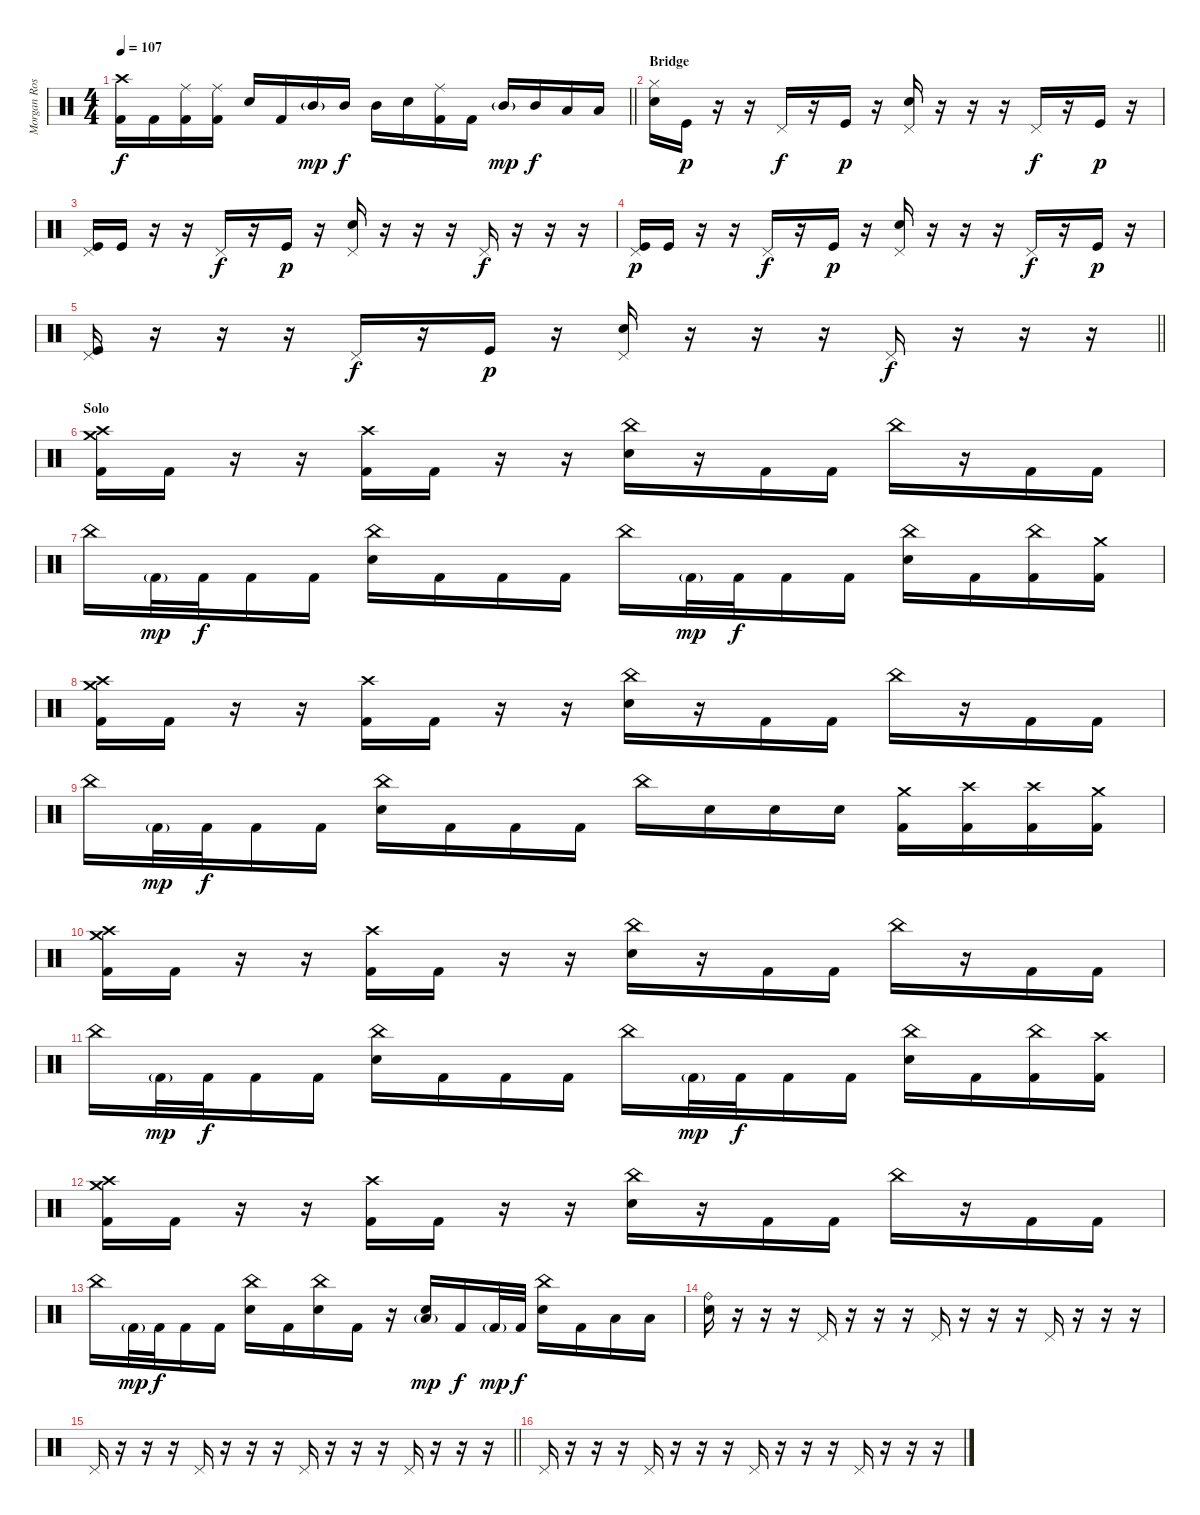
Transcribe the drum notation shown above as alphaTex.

\track ("Morgan Rose" "Morgan Ros") {instrument percussion}
\staff {score}
\articulation defaults
\ts (4 4)
\tempo 107
\clef neutral
\barLineRight lightlight
\ks c
("Crash high (hit)" "Kick (hit) 2").16{dy f} "Kick (hit) 2".16 ("Ride (middle)" "Kick (hit) 2").16 ("Ride (middle)" "Kick (hit) 2").16 "Snare (hit) 2".16 "Kick (hit) 2".16 "Mid Tom (hit)"{g}.16{dy mp} "Mid Tom (hit)".16{dy f} "Mid Tom (hit)".16 "Snare (hit) 2".16 ("Ride (middle)" "Kick (hit) 2").16 "Kick (hit) 2".16 "Mid Tom (hit)"{g}.16{dy mp} "Mid Tom (hit)".16{dy f} "Low Tom (hit)".16 "Low Tom (hit)".16 |
\section ("" "Bridge")
("Hi-Hat (closed)" "Snare (hit) 2").16 "Kick (hit)".16{dy p} r.16 r.16 "Pedal Hi-Hat (hit)".16{dy f} r.16 "Kick (hit)".16{dy p} r.16 ("Pedal Hi-Hat (hit)" "Electric Snare (hit)").16 r.16 r.16 r.16 "Pedal Hi-Hat (hit)".16{dy f} r.16 "Kick (hit)".16{dy p} r.16 |
("Pedal Hi-Hat (hit)" "Kick (hit)").16 "Kick (hit)".16 r.16 r.16 "Pedal Hi-Hat (hit)".16{dy f} r.16 "Kick (hit)".16{dy p} r.16 ("Pedal Hi-Hat (hit)" "Electric Snare (hit)").16 r.16 r.16 r.16 "Pedal Hi-Hat (hit)".16{dy f} r.16 r.16 r.16 |
("Pedal Hi-Hat (hit)" "Kick (hit)").16{dy p} "Kick (hit)".16 r.16 r.16 "Pedal Hi-Hat (hit)".16{dy f} r.16 "Kick (hit)".16{dy p} r.16 ("Pedal Hi-Hat (hit)" "Electric Snare (hit)").16 r.16 r.16 r.16 "Pedal Hi-Hat (hit)".16{dy f} r.16 "Kick (hit)".16{dy p} r.16 |
\barLineRight lightlight
("Pedal Hi-Hat (hit)" "Kick (hit)").16 r.16 r.16 r.16 "Pedal Hi-Hat (hit)".16{dy f} r.16 "Kick (hit)".16{dy p} r.16 ("Pedal Hi-Hat (hit)" "Electric Snare (hit)").16 r.16 r.16 r.16 "Pedal Hi-Hat (hit)".16{dy f} r.16 r.16 r.16 |
\section ("" "Solo")
("Crash medium (hit)" "Crash high (hit)" "Kick (hit) 2").16 "Kick (hit) 2".16 r.16 r.16 ("Crash high (hit)" "Kick (hit) 2").16 "Kick (hit) 2".16 r.16 r.16 ("China (hit)" "Snare (hit) 2").16 r.16 "Kick (hit) 2".16 "Kick (hit) 2".16 "China (hit)".16 r.16 "Kick (hit) 2".16 "Kick (hit) 2".16 |
"China (hit)".16 "Kick (hit) 2"{g}.32{dy mp} "Kick (hit) 2".32{dy f} "Kick (hit) 2".16 "Kick (hit) 2".16 ("China (hit)" "Snare (hit) 2").16 "Kick (hit) 2".16 "Kick (hit) 2".16 "Kick (hit) 2".16 "China (hit)".16 "Kick (hit) 2"{g}.32{dy mp} "Kick (hit) 2".32{dy f} "Kick (hit) 2".16 "Kick (hit) 2".16 ("China (hit)" "Snare (hit) 2").16 "Kick (hit) 2".16 ("China (hit)" "Kick (hit) 2").16 ("Crash medium (hit)" "Kick (hit) 2").16 |
("Crash medium (hit)" "Crash high (hit)" "Kick (hit) 2").16 "Kick (hit) 2".16 r.16 r.16 ("Crash high (hit)" "Kick (hit) 2").16 "Kick (hit) 2".16 r.16 r.16 ("China (hit)" "Snare (hit) 2").16 r.16 "Kick (hit) 2".16 "Kick (hit) 2".16 "China (hit)".16 r.16 "Kick (hit) 2".16 "Kick (hit) 2".16 |
"China (hit)".16 "Kick (hit) 2"{g}.32{dy mp} "Kick (hit) 2".32{dy f} "Kick (hit) 2".16 "Kick (hit) 2".16 ("China (hit)" "Snare (hit) 2").16 "Kick (hit) 2".16 "Kick (hit) 2".16 "Kick (hit) 2".16 "China (hit)".16 "Snare (hit) 2".16 "Snare (hit) 2".16 "Snare (hit) 2".16 ("Crash medium (hit)" "Kick (hit) 2").16 ("Crash high (hit)" "Kick (hit) 2").16 ("Crash high (hit)" "Kick (hit) 2").16 ("Crash medium (hit)" "Kick (hit) 2").16 |
("Crash medium (hit)" "Crash high (hit)" "Kick (hit) 2").16 "Kick (hit) 2".16 r.16 r.16 ("Crash high (hit)" "Kick (hit) 2").16 "Kick (hit) 2".16 r.16 r.16 ("China (hit)" "Snare (hit) 2").16 r.16 "Kick (hit) 2".16 "Kick (hit) 2".16 "China (hit)".16 r.16 "Kick (hit) 2".16 "Kick (hit) 2".16 |
"China (hit)".16 "Kick (hit) 2"{g}.32{dy mp} "Kick (hit) 2".32{dy f} "Kick (hit) 2".16 "Kick (hit) 2".16 ("China (hit)" "Snare (hit) 2").16 "Kick (hit) 2".16 "Kick (hit) 2".16 "Kick (hit) 2".16 "China (hit)".16 "Kick (hit) 2"{g}.32{dy mp} "Kick (hit) 2".32{dy f} "Kick (hit) 2".16 "Kick (hit) 2".16 ("China (hit)" "Snare (hit) 2").16 "Kick (hit) 2".16 ("China (hit)" "Kick (hit) 2").16 ("Crash high (hit)" "Kick (hit) 2").16 |
("Crash medium (hit)" "Crash high (hit)" "Kick (hit) 2").16 "Kick (hit) 2".16 r.16 r.16 ("Crash high (hit)" "Kick (hit) 2").16 "Kick (hit) 2".16 r.16 r.16 ("China (hit)" "Snare (hit) 2").16 r.16 "Kick (hit) 2".16 "Kick (hit) 2".16 "China (hit)".16 r.16 "Kick (hit) 2".16 "Kick (hit) 2".16 |
"China (hit)".16 "Kick (hit) 2"{g}.32{dy mp} "Kick (hit) 2".32{dy f} "Kick (hit) 2".16 "Kick (hit) 2".16 ("China (hit)" "Snare (hit) 2").16 "Kick (hit) 2".16 ("China (hit)" "Snare (hit) 2").16 "Kick (hit) 2".16 r.16 ("Low Tom (hit)"{g} "Snare (hit) 2").16{dy mp} "Kick (hit) 2".16{dy f} "Kick (hit) 2"{g}.32{dy mp} "Kick (hit) 2".32{dy f} ("China (hit)" "Snare (hit) 2").16 "Kick (hit) 2".16 "Low Tom (hit)".16 "Low Tom (hit)".16 |
("Ride (bell)" "Snare (hit) 2").16 r.16 r.16 r.16 "Pedal Hi-Hat (hit)".16 r.16 r.16 r.16 "Pedal Hi-Hat (hit)".16 r.16 r.16 r.16 "Pedal Hi-Hat (hit)".16 r.16 r.16 r.16 |
\barLineRight lightlight "Pedal Hi-Hat (hit)".16
r.16 r.16 r.16 "Pedal Hi-Hat (hit)".16 r.16 r.16 r.16 "Pedal Hi-Hat (hit)".16 r.16 r.16 r.16 "Pedal Hi-Hat (hit)".16 r.16 r.16 r.16 |
"Pedal Hi-Hat (hit)".16 r.16 r.16 r.16 "Pedal Hi-Hat (hit)".16 r.16 r.16 r.16 "Pedal Hi-Hat (hit)".16 r.16 r.16 r.16 "Pedal Hi-Hat (hit)".16 r.16 r.16 r.16
